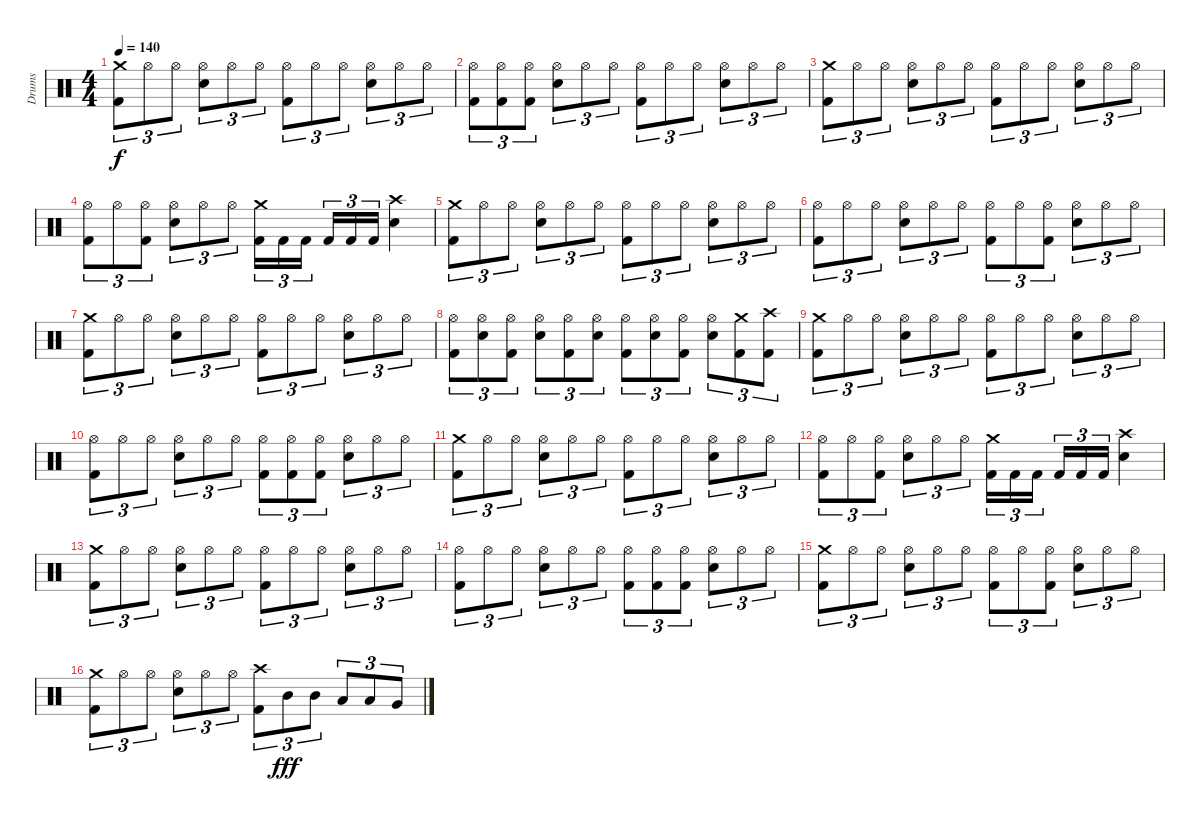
\track ("Drums" "Drums") {instrument percussion}
\staff {score}
\articulation defaults
\ts (4 4)
\tempo 140
\clef neutral
\ks c
("Kick (hit) 2" "Crash medium (hit)").8{tu (3 2) dy f} "Hi-Hat (open)".8{tu (3 2)} "Hi-Hat (open)".8{tu (3 2)} ("Electric Snare (hit)" "Hi-Hat (open)").8{tu (3 2)} "Hi-Hat (open)".8{tu (3 2)} "Hi-Hat (open)".8{tu (3 2)} ("Kick (hit) 2" "Hi-Hat (open)").8{tu (3 2)} "Hi-Hat (open)".8{tu (3 2)} "Hi-Hat (open)".8{tu (3 2)} ("Electric Snare (hit)" "Hi-Hat (open)").8{tu (3 2)} "Hi-Hat (open)".8{tu (3 2)} "Hi-Hat (open)".8{tu (3 2)} |
("Kick (hit) 2" "Hi-Hat (open)").8{tu (3 2)} ("Kick (hit) 2" "Hi-Hat (open)").8{tu (3 2)} ("Kick (hit) 2" "Hi-Hat (open)").8{tu (3 2)} ("Electric Snare (hit)" "Hi-Hat (open)").8{tu (3 2)} "Hi-Hat (open)".8{tu (3 2)} "Hi-Hat (open)".8{tu (3 2)} ("Kick (hit) 2" "Hi-Hat (open)").8{tu (3 2)} "Hi-Hat (open)".8{tu (3 2)} "Hi-Hat (open)".8{tu (3 2)} ("Electric Snare (hit)" "Hi-Hat (open)").8{tu (3 2)} "Hi-Hat (open)".8{tu (3 2)} "Hi-Hat (open)".8{tu (3 2)} |
("Kick (hit) 2" "Crash medium (hit)").8{tu (3 2)} "Hi-Hat (open)".8{tu (3 2)} "Hi-Hat (open)".8{tu (3 2)} ("Electric Snare (hit)" "Hi-Hat (open)").8{tu (3 2)} "Hi-Hat (open)".8{tu (3 2)} "Hi-Hat (open)".8{tu (3 2)} ("Kick (hit) 2" "Hi-Hat (open)").8{tu (3 2)} "Hi-Hat (open)".8{tu (3 2)} "Hi-Hat (open)".8{tu (3 2)} ("Electric Snare (hit)" "Hi-Hat (open)").8{tu (3 2)} "Hi-Hat (open)".8{tu (3 2)} "Hi-Hat (open)".8{tu (3 2)} |
("Kick (hit) 2" "Hi-Hat (open)").8{tu (3 2)} "Hi-Hat (open)".8{tu (3 2)} ("Kick (hit) 2" "Hi-Hat (open)").8{tu (3 2)} ("Electric Snare (hit)" "Hi-Hat (open)").8{tu (3 2)} "Hi-Hat (open)".8{tu (3 2)} "Hi-Hat (open)".8{tu (3 2)} ("Kick (hit) 2" "Crash medium (hit)").16{tu (3 2)} "Kick (hit) 2".16{tu (3 2)} "Kick (hit) 2".16{tu (3 2)} "Kick (hit) 2".16{tu (3 2)} "Kick (hit) 2".16{tu (3 2)} "Kick (hit) 2".16{tu (3 2)} ("Electric Snare (hit)" "Crash high (hit)").4 |
("Kick (hit) 2" "Crash medium (hit)").8{tu (3 2)} "Hi-Hat (open)".8{tu (3 2)} "Hi-Hat (open)".8{tu (3 2)} ("Electric Snare (hit)" "Hi-Hat (open)").8{tu (3 2)} "Hi-Hat (open)".8{tu (3 2)} "Hi-Hat (open)".8{tu (3 2)} ("Kick (hit) 2" "Hi-Hat (open)").8{tu (3 2)} "Hi-Hat (open)".8{tu (3 2)} "Hi-Hat (open)".8{tu (3 2)} ("Electric Snare (hit)" "Hi-Hat (open)").8{tu (3 2)} "Hi-Hat (open)".8{tu (3 2)} "Hi-Hat (open)".8{tu (3 2)} |
("Kick (hit) 2" "Hi-Hat (open)").8{tu (3 2)} "Hi-Hat (open)".8{tu (3 2)} "Hi-Hat (open)".8{tu (3 2)} ("Electric Snare (hit)" "Hi-Hat (open)").8{tu (3 2)} "Hi-Hat (open)".8{tu (3 2)} "Hi-Hat (open)".8{tu (3 2)} ("Kick (hit) 2" "Hi-Hat (open)").8{tu (3 2)} "Hi-Hat (open)".8{tu (3 2)} ("Kick (hit) 2" "Hi-Hat (open)").8{tu (3 2)} ("Electric Snare (hit)" "Hi-Hat (open)").8{tu (3 2)} "Hi-Hat (open)".8{tu (3 2)} "Hi-Hat (open)".8{tu (3 2)} |
("Kick (hit) 2" "Crash medium (hit)").8{tu (3 2)} "Hi-Hat (open)".8{tu (3 2)} "Hi-Hat (open)".8{tu (3 2)} ("Electric Snare (hit)" "Hi-Hat (open)").8{tu (3 2)} "Hi-Hat (open)".8{tu (3 2)} "Hi-Hat (open)".8{tu (3 2)} ("Kick (hit) 2" "Hi-Hat (open)").8{tu (3 2)} "Hi-Hat (open)".8{tu (3 2)} "Hi-Hat (open)".8{tu (3 2)} ("Electric Snare (hit)" "Hi-Hat (open)").8{tu (3 2)} "Hi-Hat (open)".8{tu (3 2)} "Hi-Hat (open)".8{tu (3 2)} |
("Kick (hit) 2" "Hi-Hat (open)").8{tu (3 2)} ("Electric Snare (hit)" "Hi-Hat (open)").8{tu (3 2)} ("Kick (hit) 2" "Hi-Hat (open)").8{tu (3 2)} ("Electric Snare (hit)" "Hi-Hat (open)").8{tu (3 2)} ("Kick (hit) 2" "Hi-Hat (open)").8{tu (3 2)} ("Electric Snare (hit)" "Hi-Hat (open)").8{tu (3 2)} ("Kick (hit) 2" "Hi-Hat (open)").8{tu (3 2)} ("Electric Snare (hit)" "Hi-Hat (open)").8{tu (3 2)} ("Kick (hit) 2" "Hi-Hat (open)").8{tu (3 2)} ("Electric Snare (hit)" "Hi-Hat (open)").8{tu (3 2)} ("Kick (hit) 2" "Crash medium (hit)").8{tu (3 2)} ("Kick (hit) 2" "Crash high (hit)").8{tu (3 2)} |
("Kick (hit) 2" "Crash medium (hit)").8{tu (3 2)} "Hi-Hat (open)".8{tu (3 2)} "Hi-Hat (open)".8{tu (3 2)} ("Electric Snare (hit)" "Hi-Hat (open)").8{tu (3 2)} "Hi-Hat (open)".8{tu (3 2)} "Hi-Hat (open)".8{tu (3 2)} ("Kick (hit) 2" "Hi-Hat (open)").8{tu (3 2)} "Hi-Hat (open)".8{tu (3 2)} "Hi-Hat (open)".8{tu (3 2)} ("Electric Snare (hit)" "Hi-Hat (open)").8{tu (3 2)} "Hi-Hat (open)".8{tu (3 2)} "Hi-Hat (open)".8{tu (3 2)} |
("Kick (hit) 2" "Hi-Hat (open)").8{tu (3 2)} "Hi-Hat (open)".8{tu (3 2)} "Hi-Hat (open)".8{tu (3 2)} ("Electric Snare (hit)" "Hi-Hat (open)").8{tu (3 2)} "Hi-Hat (open)".8{tu (3 2)} "Hi-Hat (open)".8{tu (3 2)} ("Kick (hit) 2" "Hi-Hat (open)").8{tu (3 2)} ("Kick (hit) 2" "Hi-Hat (open)").8{tu (3 2)} ("Kick (hit) 2" "Hi-Hat (open)").8{tu (3 2)} ("Electric Snare (hit)" "Hi-Hat (open)").8{tu (3 2)} "Hi-Hat (open)".8{tu (3 2)} "Hi-Hat (open)".8{tu (3 2)} |
("Kick (hit) 2" "Crash medium (hit)").8{tu (3 2)} "Hi-Hat (open)".8{tu (3 2)} "Hi-Hat (open)".8{tu (3 2)} ("Electric Snare (hit)" "Hi-Hat (open)").8{tu (3 2)} "Hi-Hat (open)".8{tu (3 2)} "Hi-Hat (open)".8{tu (3 2)} ("Kick (hit) 2" "Hi-Hat (open)").8{tu (3 2)} "Hi-Hat (open)".8{tu (3 2)} "Hi-Hat (open)".8{tu (3 2)} ("Electric Snare (hit)" "Hi-Hat (open)").8{tu (3 2)} "Hi-Hat (open)".8{tu (3 2)} "Hi-Hat (open)".8{tu (3 2)} |
("Kick (hit) 2" "Hi-Hat (open)").8{tu (3 2)} "Hi-Hat (open)".8{tu (3 2)} ("Kick (hit) 2" "Hi-Hat (open)").8{tu (3 2)} ("Electric Snare (hit)" "Hi-Hat (open)").8{tu (3 2)} "Hi-Hat (open)".8{tu (3 2)} "Hi-Hat (open)".8{tu (3 2)} ("Kick (hit) 2" "Crash medium (hit)").16{tu (3 2)} "Kick (hit) 2".16{tu (3 2)} "Kick (hit) 2".16{tu (3 2)} "Kick (hit) 2".16{tu (3 2)} "Kick (hit) 2".16{tu (3 2)} "Kick (hit) 2".16{tu (3 2)} ("Electric Snare (hit)" "Crash high (hit)").4 |
("Kick (hit) 2" "Crash medium (hit)").8{tu (3 2)} "Hi-Hat (open)".8{tu (3 2)} "Hi-Hat (open)".8{tu (3 2)} ("Electric Snare (hit)" "Hi-Hat (open)").8{tu (3 2)} "Hi-Hat (open)".8{tu (3 2)} "Hi-Hat (open)".8{tu (3 2)} ("Kick (hit) 2" "Hi-Hat (open)").8{tu (3 2)} "Hi-Hat (open)".8{tu (3 2)} "Hi-Hat (open)".8{tu (3 2)} ("Electric Snare (hit)" "Hi-Hat (open)").8{tu (3 2)} "Hi-Hat (open)".8{tu (3 2)} "Hi-Hat (open)".8{tu (3 2)} |
("Kick (hit) 2" "Hi-Hat (open)").8{tu (3 2)} "Hi-Hat (open)".8{tu (3 2)} "Hi-Hat (open)".8{tu (3 2)} ("Electric Snare (hit)" "Hi-Hat (open)").8{tu (3 2)} "Hi-Hat (open)".8{tu (3 2)} "Hi-Hat (open)".8{tu (3 2)} ("Kick (hit) 2" "Hi-Hat (open)").8{tu (3 2)} ("Kick (hit) 2" "Hi-Hat (open)").8{tu (3 2)} ("Kick (hit) 2" "Hi-Hat (open)").8{tu (3 2)} ("Electric Snare (hit)" "Hi-Hat (open)").8{tu (3 2)} "Hi-Hat (open)".8{tu (3 2)} "Hi-Hat (open)".8{tu (3 2)} |
("Kick (hit) 2" "Crash medium (hit)").8{tu (3 2)} "Hi-Hat (open)".8{tu (3 2)} "Hi-Hat (open)".8{tu (3 2)} ("Electric Snare (hit)" "Hi-Hat (open)").8{tu (3 2)} "Hi-Hat (open)".8{tu (3 2)} "Hi-Hat (open)".8{tu (3 2)} ("Kick (hit) 2" "Hi-Hat (open)").8{tu (3 2)} "Hi-Hat (open)".8{tu (3 2)} ("Kick (hit) 2" "Hi-Hat (open)").8{tu (3 2)} ("Electric Snare (hit)" "Hi-Hat (open)").8{tu (3 2)} "Hi-Hat (open)".8{tu (3 2)} "Hi-Hat (open)".8{tu (3 2)} |
("Kick (hit) 2" "Crash medium (hit)").8{tu (3 2)} "Hi-Hat (open)".8{tu (3 2)} "Hi-Hat (open)".8{tu (3 2)} ("Electric Snare (hit)" "Hi-Hat (open)").8{tu (3 2)} "Hi-Hat (open)".8{tu (3 2)} "Hi-Hat (open)".8{tu (3 2)} ("Kick (hit) 2" "Crash high (hit)").8{tu (3 2)} "Mid Tom (hit)".8{tu (3 2) dy fff} "Mid Tom (hit)".8{tu (3 2)} "Low Tom (hit)".8{tu (3 2)} "Low Tom (hit)".8{tu (3 2)} "Very Low Tom (hit)".8{tu (3 2)}
